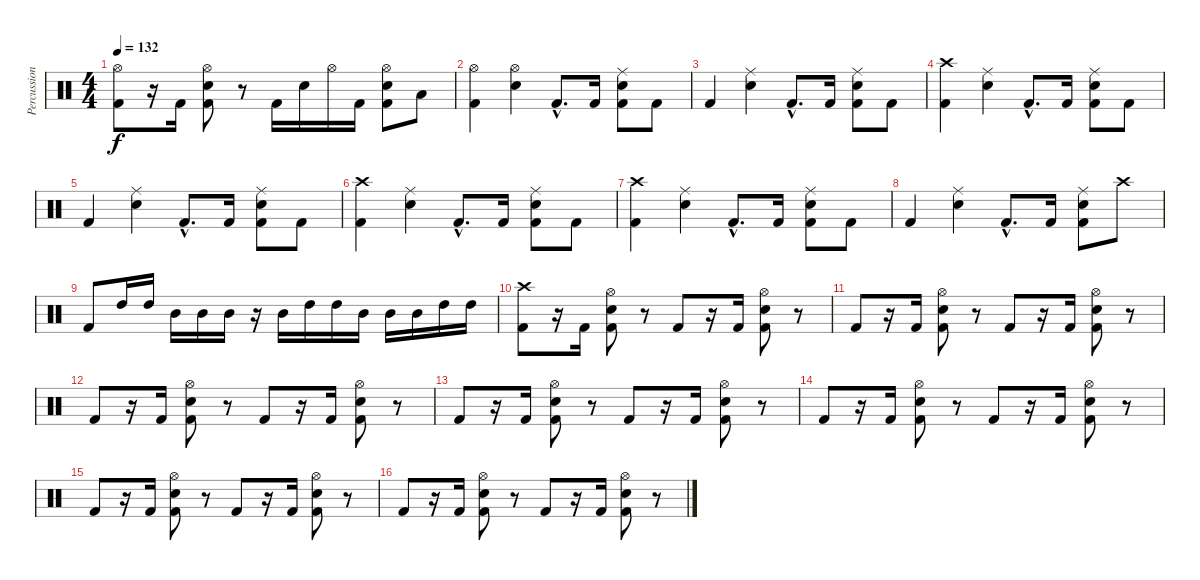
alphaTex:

\track ("Percussion" "Percussion") {instrument percussion}
\staff {score}
\articulation defaults
\ts (4 4)
\tempo 132
\clef neutral
\ks c
("Hi-Hat (open)" "Kick (hit) 2").8{dy f} r.16 "Kick (hit) 2".16 ("Hi-Hat (open)" "Snare (hit) 2" "Kick (hit) 2").8 r.8 "Kick (hit) 2".16 "Snare (hit) 2".16 "Hi-Hat (open)".16 "Kick (hit) 2".16 ("Hi-Hat (open)" "Snare (hit) 2" "Kick (hit) 2").8 "Low Floor Tom (hit)".8 |
("Hi-Hat (open)" "Kick (hit) 2").4 ("Hi-Hat (open)" "Snare (hit) 2").4 "Kick (hit) 2"{hac}.8{d} "Kick (hit) 2".16 ("Ride (middle)" "Snare (hit) 2" "Kick (hit) 2").8 "Kick (hit) 2".8 |
"Kick (hit) 2".4 ("Ride (middle)" "Snare (hit) 2").4 "Kick (hit) 2"{hac}.8{d} "Kick (hit) 2".16 ("Ride (middle)" "Snare (hit) 2" "Kick (hit) 2").8 "Kick (hit) 2".8 |
("Crash high (hit)" "Kick (hit) 2").4 ("Ride (middle)" "Snare (hit) 2").4 "Kick (hit) 2"{hac}.8{d} "Kick (hit) 2".16 ("Ride (middle)" "Snare (hit) 2" "Kick (hit) 2").8 "Kick (hit) 2".8 |
"Kick (hit) 2".4 ("Ride (middle)" "Snare (hit) 2").4 "Kick (hit) 2"{hac}.8{d} "Kick (hit) 2".16 ("Ride (middle)" "Snare (hit) 2" "Kick (hit) 2").8 "Kick (hit) 2".8 |
("Crash high (hit)" "Kick (hit) 2").4 ("Ride (middle)" "Snare (hit) 2").4 "Kick (hit) 2"{hac}.8{d} "Kick (hit) 2".16 ("Ride (middle)" "Snare (hit) 2" "Kick (hit) 2").8 "Kick (hit) 2".8 |
("Crash high (hit)" "Kick (hit) 2").4 ("Ride (middle)" "Snare (hit) 2").4 "Kick (hit) 2"{hac}.8{d} "Kick (hit) 2".16 ("Ride (middle)" "Snare (hit) 2" "Kick (hit) 2").8 "Kick (hit) 2".8 |
"Kick (hit) 2".4 ("Ride (middle)" "Snare (hit) 2").4 "Kick (hit) 2"{hac}.8{d} "Kick (hit) 2".16 ("Ride (middle)" "Snare (hit) 2" "Kick (hit) 2").8 "Crash high (hit)".8 |
"Kick (hit) 2".8 "High Tom (hit)".16 "High Tom (hit)".16 "Mid Tom (hit)".16 "Mid Tom (hit)".16 "Mid Tom (hit)".16 r.16 "Mid Tom (hit)".16 "High Tom (hit)".16 "High Tom (hit)".16 "Mid Tom (hit)".16 "Mid Tom (hit)".16 "Mid Tom (hit)".16 "High Tom (hit)".16 "High Tom (hit)".16 |
("Crash high (hit)" "Kick (hit) 2").8 r.16 "Kick (hit) 2".16 ("Hi-Hat (open)" "Snare (hit) 2" "Kick (hit) 2").8 r.8 "Kick (hit) 2".8 r.16 "Kick (hit) 2".16 ("Hi-Hat (open)" "Snare (hit) 2" "Kick (hit) 2").8 r.8 |
"Kick (hit) 2".8 r.16 "Kick (hit) 2".16 ("Hi-Hat (open)" "Snare (hit) 2" "Kick (hit) 2").8 r.8 "Kick (hit) 2".8 r.16 "Kick (hit) 2".16 ("Hi-Hat (open)" "Snare (hit) 2" "Kick (hit) 2").8 r.8 |
"Kick (hit) 2".8 r.16 "Kick (hit) 2".16 ("Hi-Hat (open)" "Snare (hit) 2" "Kick (hit) 2").8 r.8 "Kick (hit) 2".8 r.16 "Kick (hit) 2".16 ("Hi-Hat (open)" "Snare (hit) 2" "Kick (hit) 2").8 r.8 |
"Kick (hit) 2".8 r.16 "Kick (hit) 2".16 ("Hi-Hat (open)" "Snare (hit) 2" "Kick (hit) 2").8 r.8 "Kick (hit) 2".8 r.16 "Kick (hit) 2".16 ("Hi-Hat (open)" "Snare (hit) 2" "Kick (hit) 2").8 r.8 |
"Kick (hit) 2".8 r.16 "Kick (hit) 2".16 ("Hi-Hat (open)" "Snare (hit) 2" "Kick (hit) 2").8 r.8 "Kick (hit) 2".8 r.16 "Kick (hit) 2".16 ("Hi-Hat (open)" "Snare (hit) 2" "Kick (hit) 2").8 r.8 |
"Kick (hit) 2".8 r.16 "Kick (hit) 2".16 ("Hi-Hat (open)" "Snare (hit) 2" "Kick (hit) 2").8 r.8 "Kick (hit) 2".8 r.16 "Kick (hit) 2".16 ("Hi-Hat (open)" "Snare (hit) 2" "Kick (hit) 2").8 r.8 |
"Kick (hit) 2".8 r.16 "Kick (hit) 2".16 ("Hi-Hat (open)" "Snare (hit) 2" "Kick (hit) 2").8 r.8 "Kick (hit) 2".8 r.16 "Kick (hit) 2".16 ("Hi-Hat (open)" "Snare (hit) 2" "Kick (hit) 2").8 r.8
